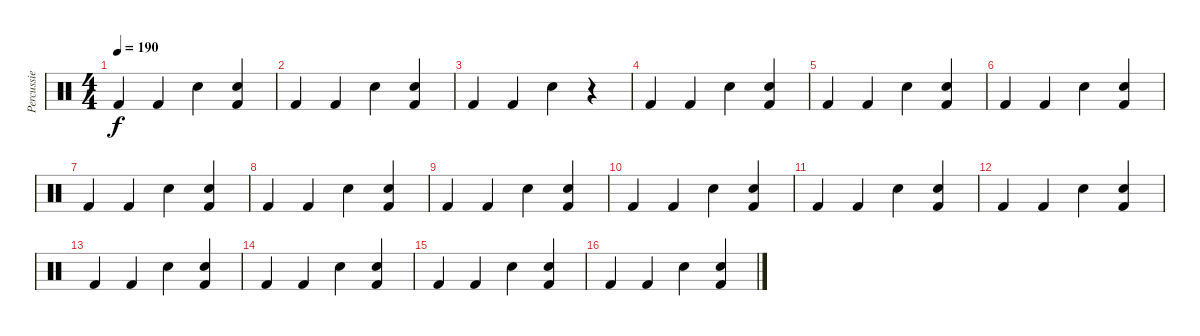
\track ("Percussie" "Percussie") {instrument percussion}
\staff {score}
\articulation defaults
\ts (4 4)
\tempo 190
\clef neutral
\ks c "Kick (hit) 2".4{dy f} "Kick (hit) 2".4 "Snare (hit) 2".4
("Snare (hit) 2" "Kick (hit) 2").4 |
"Kick (hit) 2".4 "Kick (hit) 2".4 "Snare (hit) 2".4 ("Snare (hit) 2" "Kick (hit) 2").4 |
"Kick (hit) 2".4 "Kick (hit) 2".4 "Snare (hit) 2".4 r.4 |
"Kick (hit) 2".4 "Kick (hit) 2".4 "Snare (hit) 2".4 ("Snare (hit) 2" "Kick (hit) 2").4 |
"Kick (hit) 2".4 "Kick (hit) 2".4 "Snare (hit) 2".4 ("Snare (hit) 2" "Kick (hit) 2").4 |
"Kick (hit) 2".4 "Kick (hit) 2".4 "Snare (hit) 2".4 ("Snare (hit) 2" "Kick (hit) 2").4 |
"Kick (hit) 2".4 "Kick (hit) 2".4 "Snare (hit) 2".4 ("Snare (hit) 2" "Kick (hit) 2").4 |
"Kick (hit) 2".4 "Kick (hit) 2".4 "Snare (hit) 2".4 ("Snare (hit) 2" "Kick (hit) 2").4 |
"Kick (hit) 2".4 "Kick (hit) 2".4 "Snare (hit) 2".4 ("Snare (hit) 2" "Kick (hit) 2").4 |
"Kick (hit) 2".4 "Kick (hit) 2".4 "Snare (hit) 2".4 ("Snare (hit) 2" "Kick (hit) 2").4 |
"Kick (hit) 2".4 "Kick (hit) 2".4 "Snare (hit) 2".4 ("Snare (hit) 2" "Kick (hit) 2").4 |
"Kick (hit) 2".4 "Kick (hit) 2".4 "Snare (hit) 2".4 ("Snare (hit) 2" "Kick (hit) 2").4 |
"Kick (hit) 2".4 "Kick (hit) 2".4 "Snare (hit) 2".4 ("Snare (hit) 2" "Kick (hit) 2").4 |
"Kick (hit) 2".4 "Kick (hit) 2".4 "Snare (hit) 2".4 ("Snare (hit) 2" "Kick (hit) 2").4 |
"Kick (hit) 2".4 "Kick (hit) 2".4 "Snare (hit) 2".4 ("Snare (hit) 2" "Kick (hit) 2").4 |
"Kick (hit) 2".4 "Kick (hit) 2".4 "Snare (hit) 2".4 ("Snare (hit) 2" "Kick (hit) 2").4
